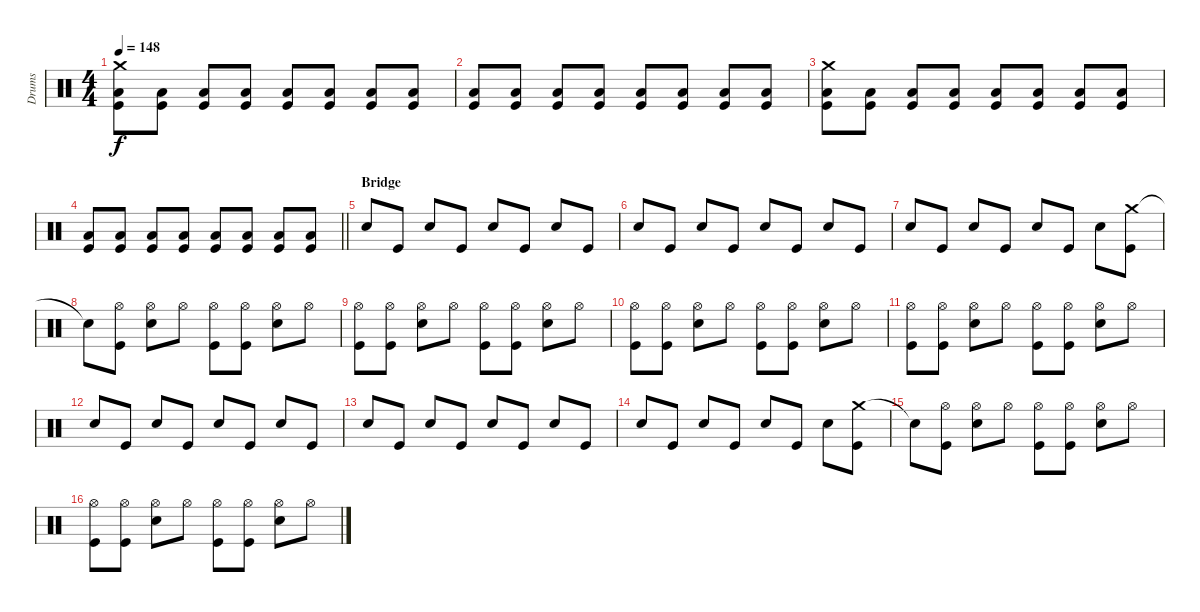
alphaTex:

\track ("Drums" "Drums") {instrument percussion}
\staff {score}
\articulation defaults
\ts (4 4)
\tempo 148
\clef neutral
\ks c
("Crash medium (hit)" "Low Tom (hit)" "Kick (hit)").8{dy f} ("Low Tom (hit)" "Kick (hit)").8 ("Low Tom (hit)" "Kick (hit)").8 ("Low Tom (hit)" "Kick (hit)").8 ("Low Tom (hit)" "Kick (hit)").8 ("Low Tom (hit)" "Kick (hit)").8 ("Low Tom (hit)" "Kick (hit)").8 ("Low Tom (hit)" "Kick (hit)").8 |
("Low Tom (hit)" "Kick (hit)").8 ("Low Tom (hit)" "Kick (hit)").8 ("Low Tom (hit)" "Kick (hit)").8 ("Low Tom (hit)" "Kick (hit)").8 ("Low Tom (hit)" "Kick (hit)").8 ("Low Tom (hit)" "Kick (hit)").8 ("Low Tom (hit)" "Kick (hit)").8 ("Low Tom (hit)" "Kick (hit)").8 |
("Crash medium (hit)" "Low Tom (hit)" "Kick (hit)").8 ("Low Tom (hit)" "Kick (hit)").8 ("Low Tom (hit)" "Kick (hit)").8 ("Low Tom (hit)" "Kick (hit)").8 ("Low Tom (hit)" "Kick (hit)").8 ("Low Tom (hit)" "Kick (hit)").8 ("Low Tom (hit)" "Kick (hit)").8 ("Low Tom (hit)" "Kick (hit)").8 |
\barLineRight lightlight
("Low Tom (hit)" "Kick (hit)").8 ("Low Tom (hit)" "Kick (hit)").8 ("Low Tom (hit)" "Kick (hit)").8 ("Low Tom (hit)" "Kick (hit)").8 ("Low Tom (hit)" "Kick (hit)").8 ("Low Tom (hit)" "Kick (hit)").8 ("Low Tom (hit)" "Kick (hit)").8 ("Low Tom (hit)" "Kick (hit)").8 |
\section ("" "Bridge")
"Electric Snare (hit)".8 "Kick (hit)".8 "Electric Snare (hit)".8 "Kick (hit)".8 "Electric Snare (hit)".8 "Kick (hit)".8 "Electric Snare (hit)".8 "Kick (hit)".8 |
"Electric Snare (hit)".8 "Kick (hit)".8 "Electric Snare (hit)".8 "Kick (hit)".8 "Electric Snare (hit)".8 "Kick (hit)".8 "Electric Snare (hit)".8 "Kick (hit)".8 |
"Electric Snare (hit)".8 "Kick (hit)".8 "Electric Snare (hit)".8 "Kick (hit)".8 "Electric Snare (hit)".8 "Kick (hit)".8 "Electric Snare (hit)".8 ("Crash medium (hit)" "Kick (hit)").8 |
"Snare (hit)"{t}.8 ("Hi-Hat (open)" "Kick (hit)").8 ("Hi-Hat (open)" "Electric Snare (hit)").8 "Hi-Hat (open)".8 ("Hi-Hat (open)" "Kick (hit)").8 ("Hi-Hat (open)" "Kick (hit)").8 ("Hi-Hat (open)" "Electric Snare (hit)").8 "Hi-Hat (open)".8 |
("Hi-Hat (open)" "Kick (hit)").8 ("Hi-Hat (open)" "Kick (hit)").8 ("Hi-Hat (open)" "Electric Snare (hit)").8 "Hi-Hat (open)".8 ("Hi-Hat (open)" "Kick (hit)").8 ("Hi-Hat (open)" "Kick (hit)").8 ("Hi-Hat (open)" "Electric Snare (hit)").8 "Hi-Hat (open)".8 |
("Hi-Hat (open)" "Kick (hit)").8 ("Hi-Hat (open)" "Kick (hit)").8 ("Hi-Hat (open)" "Electric Snare (hit)").8 "Hi-Hat (open)".8 ("Hi-Hat (open)" "Kick (hit)").8 ("Hi-Hat (open)" "Kick (hit)").8 ("Hi-Hat (open)" "Electric Snare (hit)").8 "Hi-Hat (open)".8 |
("Hi-Hat (open)" "Kick (hit)").8 ("Hi-Hat (open)" "Kick (hit)").8 ("Hi-Hat (open)" "Electric Snare (hit)").8 "Hi-Hat (open)".8 ("Hi-Hat (open)" "Kick (hit)").8 ("Hi-Hat (open)" "Kick (hit)").8 ("Hi-Hat (open)" "Electric Snare (hit)").8 "Hi-Hat (open)".8 |
"Electric Snare (hit)".8 "Kick (hit)".8 "Electric Snare (hit)".8 "Kick (hit)".8 "Electric Snare (hit)".8 "Kick (hit)".8 "Electric Snare (hit)".8 "Kick (hit)".8 |
"Electric Snare (hit)".8 "Kick (hit)".8 "Electric Snare (hit)".8 "Kick (hit)".8 "Electric Snare (hit)".8 "Kick (hit)".8 "Electric Snare (hit)".8 "Kick (hit)".8 |
"Electric Snare (hit)".8 "Kick (hit)".8 "Electric Snare (hit)".8 "Kick (hit)".8 "Electric Snare (hit)".8 "Kick (hit)".8 "Electric Snare (hit)".8 ("Crash medium (hit)" "Kick (hit)").8 |
"Snare (hit)"{t}.8 ("Hi-Hat (open)" "Kick (hit)").8 ("Hi-Hat (open)" "Electric Snare (hit)").8 "Hi-Hat (open)".8 ("Hi-Hat (open)" "Kick (hit)").8 ("Hi-Hat (open)" "Kick (hit)").8 ("Hi-Hat (open)" "Electric Snare (hit)").8 "Hi-Hat (open)".8 |
("Hi-Hat (open)" "Kick (hit)").8 ("Hi-Hat (open)" "Kick (hit)").8 ("Hi-Hat (open)" "Electric Snare (hit)").8 "Hi-Hat (open)".8 ("Hi-Hat (open)" "Kick (hit)").8 ("Hi-Hat (open)" "Kick (hit)").8 ("Hi-Hat (open)" "Electric Snare (hit)").8 "Hi-Hat (open)".8
